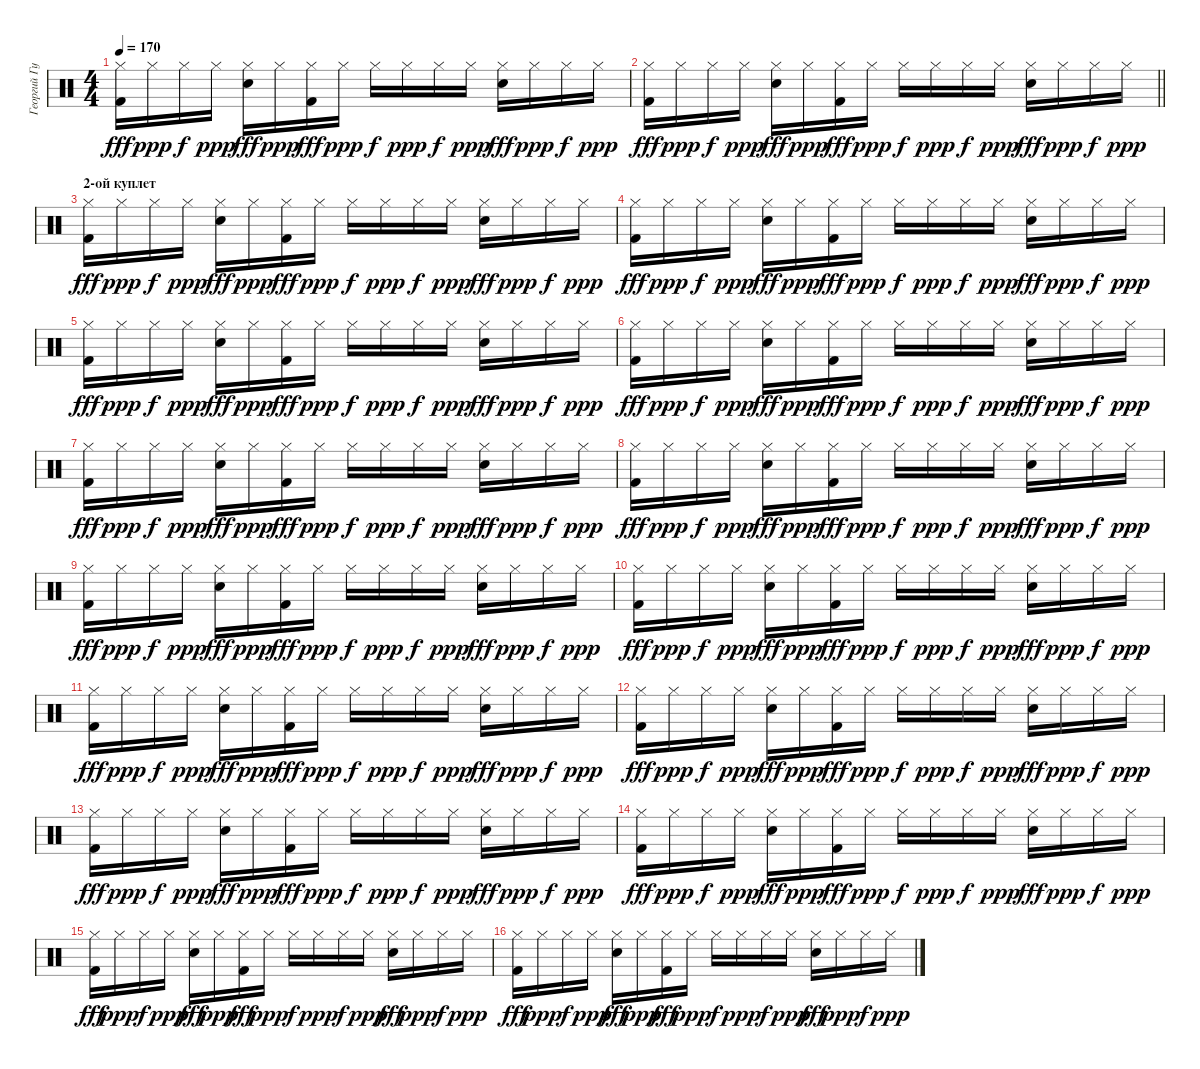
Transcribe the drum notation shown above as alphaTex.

\track ("Георгий Гурьянов" "Георгий Гу") {instrument percussion}
\staff {score}
\articulation defaults
\ts (4 4)
\tempo 170
\clef neutral
\ks c
("Hi-Hat (closed)" "Kick (hit) 2").16{dy fff} "Hi-Hat (closed)".16{dy ppp} "Hi-Hat (closed)".16{dy f} "Hi-Hat (closed)".16{dy ppp} ("Hi-Hat (closed)" "Electric Snare (hit)").16{dy fff} "Hi-Hat (closed)".16{dy ppp} ("Hi-Hat (closed)" "Kick (hit) 2").16{dy fff} "Hi-Hat (closed)".16{dy ppp} "Hi-Hat (closed)".16{dy f} "Hi-Hat (closed)".16{dy ppp} "Hi-Hat (closed)".16{dy f} "Hi-Hat (closed)".16{dy ppp} ("Hi-Hat (closed)" "Electric Snare (hit)").16{dy fff} "Hi-Hat (closed)".16{dy ppp} "Hi-Hat (closed)".16{dy f} "Hi-Hat (closed)".16{dy ppp} |
\barLineRight lightlight
("Hi-Hat (closed)" "Kick (hit) 2").16{dy fff} "Hi-Hat (closed)".16{dy ppp} "Hi-Hat (closed)".16{dy f} "Hi-Hat (closed)".16{dy ppp} ("Hi-Hat (closed)" "Electric Snare (hit)").16{dy fff} "Hi-Hat (closed)".16{dy ppp} ("Hi-Hat (closed)" "Kick (hit) 2").16{dy fff} "Hi-Hat (closed)".16{dy ppp} "Hi-Hat (closed)".16{dy f} "Hi-Hat (closed)".16{dy ppp} "Hi-Hat (closed)".16{dy f} "Hi-Hat (closed)".16{dy ppp} ("Hi-Hat (closed)" "Electric Snare (hit)").16{dy fff} "Hi-Hat (closed)".16{dy ppp} "Hi-Hat (closed)".16{dy f} "Hi-Hat (closed)".16{dy ppp} |
\section ("" "2-ой куплет")
("Hi-Hat (closed)" "Kick (hit) 2").16{dy fff} "Hi-Hat (closed)".16{dy ppp} "Hi-Hat (closed)".16{dy f} "Hi-Hat (closed)".16{dy ppp} ("Hi-Hat (closed)" "Electric Snare (hit)").16{dy fff} "Hi-Hat (closed)".16{dy ppp} ("Hi-Hat (closed)" "Kick (hit) 2").16{dy fff} "Hi-Hat (closed)".16{dy ppp} "Hi-Hat (closed)".16{dy f} "Hi-Hat (closed)".16{dy ppp} "Hi-Hat (closed)".16{dy f} "Hi-Hat (closed)".16{dy ppp} ("Hi-Hat (closed)" "Electric Snare (hit)").16{dy fff} "Hi-Hat (closed)".16{dy ppp} "Hi-Hat (closed)".16{dy f} "Hi-Hat (closed)".16{dy ppp} |
("Hi-Hat (closed)" "Kick (hit) 2").16{dy fff} "Hi-Hat (closed)".16{dy ppp} "Hi-Hat (closed)".16{dy f} "Hi-Hat (closed)".16{dy ppp} ("Hi-Hat (closed)" "Electric Snare (hit)").16{dy fff} "Hi-Hat (closed)".16{dy ppp} ("Hi-Hat (closed)" "Kick (hit) 2").16{dy fff} "Hi-Hat (closed)".16{dy ppp} "Hi-Hat (closed)".16{dy f} "Hi-Hat (closed)".16{dy ppp} "Hi-Hat (closed)".16{dy f} "Hi-Hat (closed)".16{dy ppp} ("Hi-Hat (closed)" "Electric Snare (hit)").16{dy fff} "Hi-Hat (closed)".16{dy ppp} "Hi-Hat (closed)".16{dy f} "Hi-Hat (closed)".16{dy ppp} |
("Hi-Hat (closed)" "Kick (hit) 2").16{dy fff} "Hi-Hat (closed)".16{dy ppp} "Hi-Hat (closed)".16{dy f} "Hi-Hat (closed)".16{dy ppp} ("Hi-Hat (closed)" "Electric Snare (hit)").16{dy fff} "Hi-Hat (closed)".16{dy ppp} ("Hi-Hat (closed)" "Kick (hit) 2").16{dy fff} "Hi-Hat (closed)".16{dy ppp} "Hi-Hat (closed)".16{dy f} "Hi-Hat (closed)".16{dy ppp} "Hi-Hat (closed)".16{dy f} "Hi-Hat (closed)".16{dy ppp} ("Hi-Hat (closed)" "Electric Snare (hit)").16{dy fff} "Hi-Hat (closed)".16{dy ppp} "Hi-Hat (closed)".16{dy f} "Hi-Hat (closed)".16{dy ppp} |
("Hi-Hat (closed)" "Kick (hit) 2").16{dy fff} "Hi-Hat (closed)".16{dy ppp} "Hi-Hat (closed)".16{dy f} "Hi-Hat (closed)".16{dy ppp} ("Hi-Hat (closed)" "Electric Snare (hit)").16{dy fff} "Hi-Hat (closed)".16{dy ppp} ("Hi-Hat (closed)" "Kick (hit) 2").16{dy fff} "Hi-Hat (closed)".16{dy ppp} "Hi-Hat (closed)".16{dy f} "Hi-Hat (closed)".16{dy ppp} "Hi-Hat (closed)".16{dy f} "Hi-Hat (closed)".16{dy ppp} ("Hi-Hat (closed)" "Electric Snare (hit)").16{dy fff} "Hi-Hat (closed)".16{dy ppp} "Hi-Hat (closed)".16{dy f} "Hi-Hat (closed)".16{dy ppp} |
("Hi-Hat (closed)" "Kick (hit) 2").16{dy fff} "Hi-Hat (closed)".16{dy ppp} "Hi-Hat (closed)".16{dy f} "Hi-Hat (closed)".16{dy ppp} ("Hi-Hat (closed)" "Electric Snare (hit)").16{dy fff} "Hi-Hat (closed)".16{dy ppp} ("Hi-Hat (closed)" "Kick (hit) 2").16{dy fff} "Hi-Hat (closed)".16{dy ppp} "Hi-Hat (closed)".16{dy f} "Hi-Hat (closed)".16{dy ppp} "Hi-Hat (closed)".16{dy f} "Hi-Hat (closed)".16{dy ppp} ("Hi-Hat (closed)" "Electric Snare (hit)").16{dy fff} "Hi-Hat (closed)".16{dy ppp} "Hi-Hat (closed)".16{dy f} "Hi-Hat (closed)".16{dy ppp} |
("Hi-Hat (closed)" "Kick (hit) 2").16{dy fff} "Hi-Hat (closed)".16{dy ppp} "Hi-Hat (closed)".16{dy f} "Hi-Hat (closed)".16{dy ppp} ("Hi-Hat (closed)" "Electric Snare (hit)").16{dy fff} "Hi-Hat (closed)".16{dy ppp} ("Hi-Hat (closed)" "Kick (hit) 2").16{dy fff} "Hi-Hat (closed)".16{dy ppp} "Hi-Hat (closed)".16{dy f} "Hi-Hat (closed)".16{dy ppp} "Hi-Hat (closed)".16{dy f} "Hi-Hat (closed)".16{dy ppp} ("Hi-Hat (closed)" "Electric Snare (hit)").16{dy fff} "Hi-Hat (closed)".16{dy ppp} "Hi-Hat (closed)".16{dy f} "Hi-Hat (closed)".16{dy ppp} |
("Hi-Hat (closed)" "Kick (hit) 2").16{dy fff} "Hi-Hat (closed)".16{dy ppp} "Hi-Hat (closed)".16{dy f} "Hi-Hat (closed)".16{dy ppp} ("Hi-Hat (closed)" "Electric Snare (hit)").16{dy fff} "Hi-Hat (closed)".16{dy ppp} ("Hi-Hat (closed)" "Kick (hit) 2").16{dy fff} "Hi-Hat (closed)".16{dy ppp} "Hi-Hat (closed)".16{dy f} "Hi-Hat (closed)".16{dy ppp} "Hi-Hat (closed)".16{dy f} "Hi-Hat (closed)".16{dy ppp} ("Hi-Hat (closed)" "Electric Snare (hit)").16{dy fff} "Hi-Hat (closed)".16{dy ppp} "Hi-Hat (closed)".16{dy f} "Hi-Hat (closed)".16{dy ppp} |
("Hi-Hat (closed)" "Kick (hit) 2").16{dy fff} "Hi-Hat (closed)".16{dy ppp} "Hi-Hat (closed)".16{dy f} "Hi-Hat (closed)".16{dy ppp} ("Hi-Hat (closed)" "Electric Snare (hit)").16{dy fff} "Hi-Hat (closed)".16{dy ppp} ("Hi-Hat (closed)" "Kick (hit) 2").16{dy fff} "Hi-Hat (closed)".16{dy ppp} "Hi-Hat (closed)".16{dy f} "Hi-Hat (closed)".16{dy ppp} "Hi-Hat (closed)".16{dy f} "Hi-Hat (closed)".16{dy ppp} ("Hi-Hat (closed)" "Electric Snare (hit)").16{dy fff} "Hi-Hat (closed)".16{dy ppp} "Hi-Hat (closed)".16{dy f} "Hi-Hat (closed)".16{dy ppp} |
("Hi-Hat (closed)" "Kick (hit) 2").16{dy fff} "Hi-Hat (closed)".16{dy ppp} "Hi-Hat (closed)".16{dy f} "Hi-Hat (closed)".16{dy ppp} ("Hi-Hat (closed)" "Electric Snare (hit)").16{dy fff} "Hi-Hat (closed)".16{dy ppp} ("Hi-Hat (closed)" "Kick (hit) 2").16{dy fff} "Hi-Hat (closed)".16{dy ppp} "Hi-Hat (closed)".16{dy f} "Hi-Hat (closed)".16{dy ppp} "Hi-Hat (closed)".16{dy f} "Hi-Hat (closed)".16{dy ppp} ("Hi-Hat (closed)" "Electric Snare (hit)").16{dy fff} "Hi-Hat (closed)".16{dy ppp} "Hi-Hat (closed)".16{dy f} "Hi-Hat (closed)".16{dy ppp} |
("Hi-Hat (closed)" "Kick (hit) 2").16{dy fff} "Hi-Hat (closed)".16{dy ppp} "Hi-Hat (closed)".16{dy f} "Hi-Hat (closed)".16{dy ppp} ("Hi-Hat (closed)" "Electric Snare (hit)").16{dy fff} "Hi-Hat (closed)".16{dy ppp} ("Hi-Hat (closed)" "Kick (hit) 2").16{dy fff} "Hi-Hat (closed)".16{dy ppp} "Hi-Hat (closed)".16{dy f} "Hi-Hat (closed)".16{dy ppp} "Hi-Hat (closed)".16{dy f} "Hi-Hat (closed)".16{dy ppp} ("Hi-Hat (closed)" "Electric Snare (hit)").16{dy fff} "Hi-Hat (closed)".16{dy ppp} "Hi-Hat (closed)".16{dy f} "Hi-Hat (closed)".16{dy ppp} |
("Hi-Hat (closed)" "Kick (hit) 2").16{dy fff} "Hi-Hat (closed)".16{dy ppp} "Hi-Hat (closed)".16{dy f} "Hi-Hat (closed)".16{dy ppp} ("Hi-Hat (closed)" "Electric Snare (hit)").16{dy fff} "Hi-Hat (closed)".16{dy ppp} ("Hi-Hat (closed)" "Kick (hit) 2").16{dy fff} "Hi-Hat (closed)".16{dy ppp} "Hi-Hat (closed)".16{dy f} "Hi-Hat (closed)".16{dy ppp} "Hi-Hat (closed)".16{dy f} "Hi-Hat (closed)".16{dy ppp} ("Hi-Hat (closed)" "Electric Snare (hit)").16{dy fff} "Hi-Hat (closed)".16{dy ppp} "Hi-Hat (closed)".16{dy f} "Hi-Hat (closed)".16{dy ppp} |
("Hi-Hat (closed)" "Kick (hit) 2").16{dy fff} "Hi-Hat (closed)".16{dy ppp} "Hi-Hat (closed)".16{dy f} "Hi-Hat (closed)".16{dy ppp} ("Hi-Hat (closed)" "Electric Snare (hit)").16{dy fff} "Hi-Hat (closed)".16{dy ppp} ("Hi-Hat (closed)" "Kick (hit) 2").16{dy fff} "Hi-Hat (closed)".16{dy ppp} "Hi-Hat (closed)".16{dy f} "Hi-Hat (closed)".16{dy ppp} "Hi-Hat (closed)".16{dy f} "Hi-Hat (closed)".16{dy ppp} ("Hi-Hat (closed)" "Electric Snare (hit)").16{dy fff} "Hi-Hat (closed)".16{dy ppp} "Hi-Hat (closed)".16{dy f} "Hi-Hat (closed)".16{dy ppp} |
("Hi-Hat (closed)" "Kick (hit) 2").16{dy fff} "Hi-Hat (closed)".16{dy ppp} "Hi-Hat (closed)".16{dy f} "Hi-Hat (closed)".16{dy ppp} ("Hi-Hat (closed)" "Electric Snare (hit)").16{dy fff} "Hi-Hat (closed)".16{dy ppp} ("Hi-Hat (closed)" "Kick (hit) 2").16{dy fff} "Hi-Hat (closed)".16{dy ppp} "Hi-Hat (closed)".16{dy f} "Hi-Hat (closed)".16{dy ppp} "Hi-Hat (closed)".16{dy f} "Hi-Hat (closed)".16{dy ppp} ("Hi-Hat (closed)" "Electric Snare (hit)").16{dy fff} "Hi-Hat (closed)".16{dy ppp} "Hi-Hat (closed)".16{dy f} "Hi-Hat (closed)".16{dy ppp} |
("Hi-Hat (closed)" "Kick (hit) 2").16{dy fff} "Hi-Hat (closed)".16{dy ppp} "Hi-Hat (closed)".16{dy f} "Hi-Hat (closed)".16{dy ppp} ("Hi-Hat (closed)" "Electric Snare (hit)").16{dy fff} "Hi-Hat (closed)".16{dy ppp} ("Hi-Hat (closed)" "Kick (hit) 2").16{dy fff} "Hi-Hat (closed)".16{dy ppp} "Hi-Hat (closed)".16{dy f} "Hi-Hat (closed)".16{dy ppp} "Hi-Hat (closed)".16{dy f} "Hi-Hat (closed)".16{dy ppp} ("Hi-Hat (closed)" "Electric Snare (hit)").16{dy fff} "Hi-Hat (closed)".16{dy ppp} "Hi-Hat (closed)".16{dy f} "Hi-Hat (closed)".16{dy ppp}
